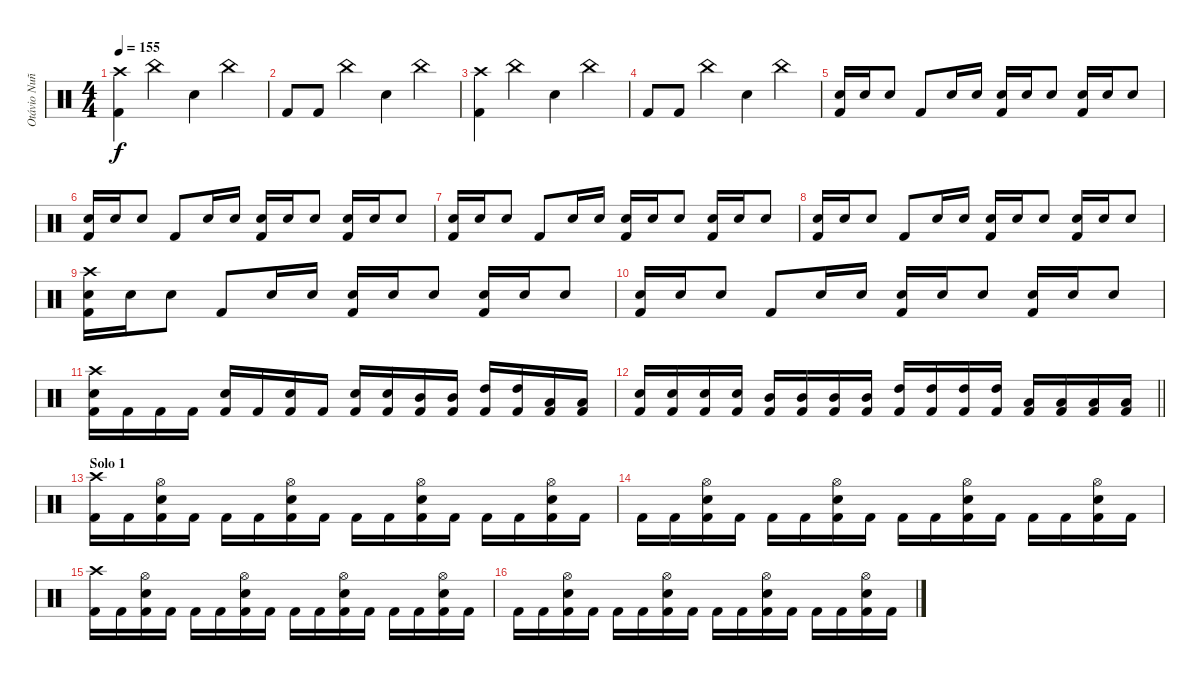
\track ("Otávio Nuñez" "Otávio Nuñ") {instrument percussion}
\staff {score}
\articulation defaults
\ts (4 4)
\tempo 155
\clef neutral
\ks c
("Crash high (hit)" "Kick (hit) 2").4{dy f} "China (hit)".4 "Electric Snare (hit)".4 "China (hit)".4 |
"Kick (hit) 2".8 "Kick (hit) 2".8 "China (hit)".4 "Electric Snare (hit)".4 "China (hit)".4 |
("Crash high (hit)" "Kick (hit) 2").4 "China (hit)".4 "Electric Snare (hit)".4 "China (hit)".4 |
"Kick (hit) 2".8 "Kick (hit) 2".8 "China (hit)".4 "Electric Snare (hit)".4 "China (hit)".4 |
("Electric Snare (hit)" "Kick (hit) 2").16 "Electric Snare (hit)".16 "Electric Snare (hit)".8 "Kick (hit) 2".8 "Electric Snare (hit)".16 "Electric Snare (hit)".16 ("Electric Snare (hit)" "Kick (hit) 2").16 "Electric Snare (hit)".16 "Electric Snare (hit)".8 ("Electric Snare (hit)" "Kick (hit) 2").16 "Electric Snare (hit)".16 "Electric Snare (hit)".8 |
("Electric Snare (hit)" "Kick (hit) 2").16 "Electric Snare (hit)".16 "Electric Snare (hit)".8 "Kick (hit) 2".8 "Electric Snare (hit)".16 "Electric Snare (hit)".16 ("Electric Snare (hit)" "Kick (hit) 2").16 "Electric Snare (hit)".16 "Electric Snare (hit)".8 ("Electric Snare (hit)" "Kick (hit) 2").16 "Electric Snare (hit)".16 "Electric Snare (hit)".8 |
("Electric Snare (hit)" "Kick (hit) 2").16 "Electric Snare (hit)".16 "Electric Snare (hit)".8 "Kick (hit) 2".8 "Electric Snare (hit)".16 "Electric Snare (hit)".16 ("Electric Snare (hit)" "Kick (hit) 2").16 "Electric Snare (hit)".16 "Electric Snare (hit)".8 ("Electric Snare (hit)" "Kick (hit) 2").16 "Electric Snare (hit)".16 "Electric Snare (hit)".8 |
("Electric Snare (hit)" "Kick (hit) 2").16 "Electric Snare (hit)".16 "Electric Snare (hit)".8 "Kick (hit) 2".8 "Electric Snare (hit)".16 "Electric Snare (hit)".16 ("Electric Snare (hit)" "Kick (hit) 2").16 "Electric Snare (hit)".16 "Electric Snare (hit)".8 ("Electric Snare (hit)" "Kick (hit) 2").16 "Electric Snare (hit)".16 "Electric Snare (hit)".8 |
("Crash high (hit)" "Electric Snare (hit)" "Kick (hit) 2").16 "Electric Snare (hit)".16 "Electric Snare (hit)".8 "Kick (hit) 2".8 "Electric Snare (hit)".16 "Electric Snare (hit)".16 ("Electric Snare (hit)" "Kick (hit) 2").16 "Electric Snare (hit)".16 "Electric Snare (hit)".8 ("Electric Snare (hit)" "Kick (hit) 2").16 "Electric Snare (hit)".16 "Electric Snare (hit)".8 |
("Electric Snare (hit)" "Kick (hit) 2").16 "Electric Snare (hit)".16 "Electric Snare (hit)".8 "Kick (hit) 2".8 "Electric Snare (hit)".16 "Electric Snare (hit)".16 ("Electric Snare (hit)" "Kick (hit) 2").16 "Electric Snare (hit)".16 "Electric Snare (hit)".8 ("Electric Snare (hit)" "Kick (hit) 2").16 "Electric Snare (hit)".16 "Electric Snare (hit)".8 |
("Crash high (hit)" "Electric Snare (hit)" "Kick (hit) 2").16 "Kick (hit) 2".16 "Kick (hit) 2".16 "Kick (hit) 2".16 ("Electric Snare (hit)" "Kick (hit) 2").16 "Kick (hit) 2".16 ("Electric Snare (hit)" "Kick (hit) 2").16 "Kick (hit) 2".16 ("Electric Snare (hit)" "Kick (hit) 2").16 ("Electric Snare (hit)" "Kick (hit) 2").16 ("Mid Tom (hit)" "Kick (hit) 2").16 ("Mid Tom (hit)" "Kick (hit) 2").16 ("High Tom (hit)" "Kick (hit) 2").16 ("High Tom (hit)" "Kick (hit) 2").16 ("Low Tom (hit)" "Kick (hit) 2").16 ("Low Tom (hit)" "Kick (hit) 2").16 |
\barLineRight lightlight
("Electric Snare (hit)" "Kick (hit) 2").16 ("Electric Snare (hit)" "Kick (hit) 2").16 ("Electric Snare (hit)" "Kick (hit) 2").16 ("Electric Snare (hit)" "Kick (hit) 2").16 ("Mid Tom (hit)" "Kick (hit) 2").16 ("Mid Tom (hit)" "Kick (hit) 2").16 ("Mid Tom (hit)" "Kick (hit) 2").16 ("Mid Tom (hit)" "Kick (hit) 2").16 ("High Tom (hit)" "Kick (hit) 2").16 ("High Tom (hit)" "Kick (hit) 2").16 ("High Tom (hit)" "Kick (hit) 2").16 ("High Tom (hit)" "Kick (hit) 2").16 ("Low Tom (hit)" "Kick (hit) 2").16 ("Low Tom (hit)" "Kick (hit) 2").16 ("Low Floor Tom (hit)" "Kick (hit) 2").16 ("Low Floor Tom (hit)" "Kick (hit) 2").16 |
\section ("" "Solo 1")
("Crash high (hit)" "Kick (hit) 2").16 "Kick (hit) 2".16 ("Hi-Hat (open)" "Electric Snare (hit)" "Kick (hit) 2").16 "Kick (hit) 2".16 "Kick (hit) 2".16 "Kick (hit) 2".16 ("Hi-Hat (open)" "Electric Snare (hit)" "Kick (hit) 2").16 "Kick (hit) 2".16 "Kick (hit) 2".16 "Kick (hit) 2".16 ("Hi-Hat (open)" "Electric Snare (hit)" "Kick (hit) 2").16 "Kick (hit) 2".16 "Kick (hit) 2".16 "Kick (hit) 2".16 ("Hi-Hat (open)" "Electric Snare (hit)" "Kick (hit) 2").16 "Kick (hit) 2".16 |
"Kick (hit) 2".16 "Kick (hit) 2".16 ("Hi-Hat (open)" "Electric Snare (hit)" "Kick (hit) 2").16 "Kick (hit) 2".16 "Kick (hit) 2".16 "Kick (hit) 2".16 ("Hi-Hat (open)" "Electric Snare (hit)" "Kick (hit) 2").16 "Kick (hit) 2".16 "Kick (hit) 2".16 "Kick (hit) 2".16 ("Hi-Hat (open)" "Electric Snare (hit)" "Kick (hit) 2").16 "Kick (hit) 2".16 "Kick (hit) 2".16 "Kick (hit) 2".16 ("Hi-Hat (open)" "Electric Snare (hit)" "Kick (hit) 2").16 "Kick (hit) 2".16 |
("Crash high (hit)" "Kick (hit) 2").16 "Kick (hit) 2".16 ("Hi-Hat (open)" "Electric Snare (hit)" "Kick (hit) 2").16 "Kick (hit) 2".16 "Kick (hit) 2".16 "Kick (hit) 2".16 ("Hi-Hat (open)" "Electric Snare (hit)" "Kick (hit) 2").16 "Kick (hit) 2".16 "Kick (hit) 2".16 "Kick (hit) 2".16 ("Hi-Hat (open)" "Electric Snare (hit)" "Kick (hit) 2").16 "Kick (hit) 2".16 "Kick (hit) 2".16 "Kick (hit) 2".16 ("Hi-Hat (open)" "Electric Snare (hit)" "Kick (hit) 2").16 "Kick (hit) 2".16 |
"Kick (hit) 2".16 "Kick (hit) 2".16 ("Hi-Hat (open)" "Electric Snare (hit)" "Kick (hit) 2").16 "Kick (hit) 2".16 "Kick (hit) 2".16 "Kick (hit) 2".16 ("Hi-Hat (open)" "Electric Snare (hit)" "Kick (hit) 2").16 "Kick (hit) 2".16 "Kick (hit) 2".16 "Kick (hit) 2".16 ("Hi-Hat (open)" "Electric Snare (hit)" "Kick (hit) 2").16 "Kick (hit) 2".16 "Kick (hit) 2".16 "Kick (hit) 2".16 ("Hi-Hat (open)" "Electric Snare (hit)" "Kick (hit) 2").16 "Kick (hit) 2".16
